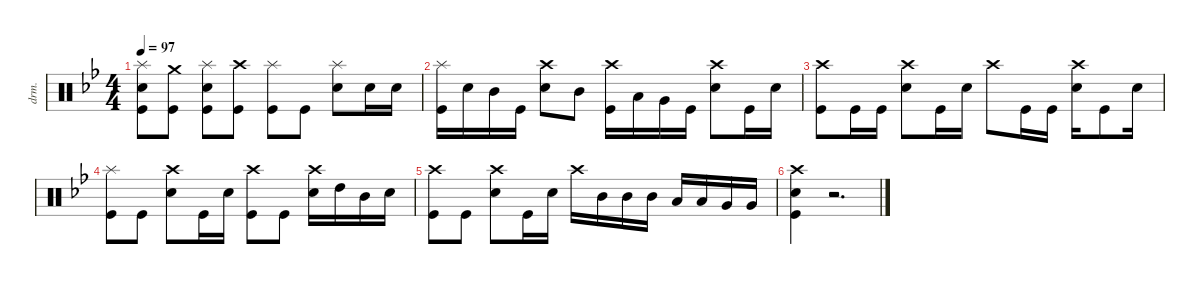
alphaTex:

\defaultSystemsLayout 4
\hideDynamics
\bracketExtendMode nobrackets
\otherSystemsTrackNameOrientation horizontal
\track ("Drumkit" "drm.") {instrument percussion}
\staff {score}
\articulation defaults
\ts (4 4)
\tempo 97
\clef neutral
\ks bb
("Snare (hit) 2" "Kick (hit)" "Splash (hit)").8{dy mp} ("Kick (hit)" "Crash medium (hit)").8 ("Snare (hit) 2" "Kick (hit)" "Splash (hit)").8 ("Kick (hit)" "Crash high (hit)").8 ("Kick (hit)" "Splash (hit)").8 "Kick (hit)".8 ("Snare (hit) 2" "Splash (hit)").8 "Snare (hit) 2".16 "Snare (hit) 2".16 |
("Splash (hit)" "Kick (hit)").16 "Snare (hit) 2".16 "Mid Tom (hit)".16 "Kick (hit)".16 ("Snare (hit) 2" "Crash high (hit)").8 "Mid Tom (hit)".8 ("Kick (hit)" "Crash high (hit)").16 "Low Tom (hit)".16 "Very Low Tom (hit)".16 "Kick (hit)".16 ("Snare (hit) 2" "Crash high (hit)").8 "Kick (hit)".16 "Snare (hit) 2".16 |
("Kick (hit)" "Crash high (hit)").8 "Kick (hit)".16 "Kick (hit)".16 ("Snare (hit) 2" "Crash high (hit)").8 "Kick (hit)".16 "Snare (hit) 2".16 "Crash high (hit)".8 "Kick (hit)".16 "Kick (hit)".16 ("Snare (hit) 2" "Crash high (hit)").16 "Kick (hit)".8 "Snare (hit) 2".16 |
("Kick (hit)" "Splash (hit)").8 "Kick (hit)".8 ("Snare (hit) 2" "Crash high (hit)").8 "Kick (hit)".16 "Snare (hit) 2".16 ("Kick (hit)" "Crash high (hit)").8 "Kick (hit)".8 ("Snare (hit) 2" "Crash high (hit)").16 "High Tom (hit)".16 "Mid Tom (hit)".16 "Snare (hit) 2".16 |
("Kick (hit)" "Crash high (hit)").8 "Kick (hit)".8 ("Snare (hit) 2" "Crash high (hit)").8 "Kick (hit)".16 "Snare (hit) 2".16 "Crash high (hit)".16 "Mid Tom (hit)".16 "Mid Tom (hit)".16 "Mid Tom (hit)".16 "Low Tom (hit)".16 "Low Tom (hit)".16 "Very Low Tom (hit)".16 "Very Low Tom (hit)".16 |
("Crash high (hit)" "Kick (hit)" "Snare (hit) 2").4 r.2{d}
